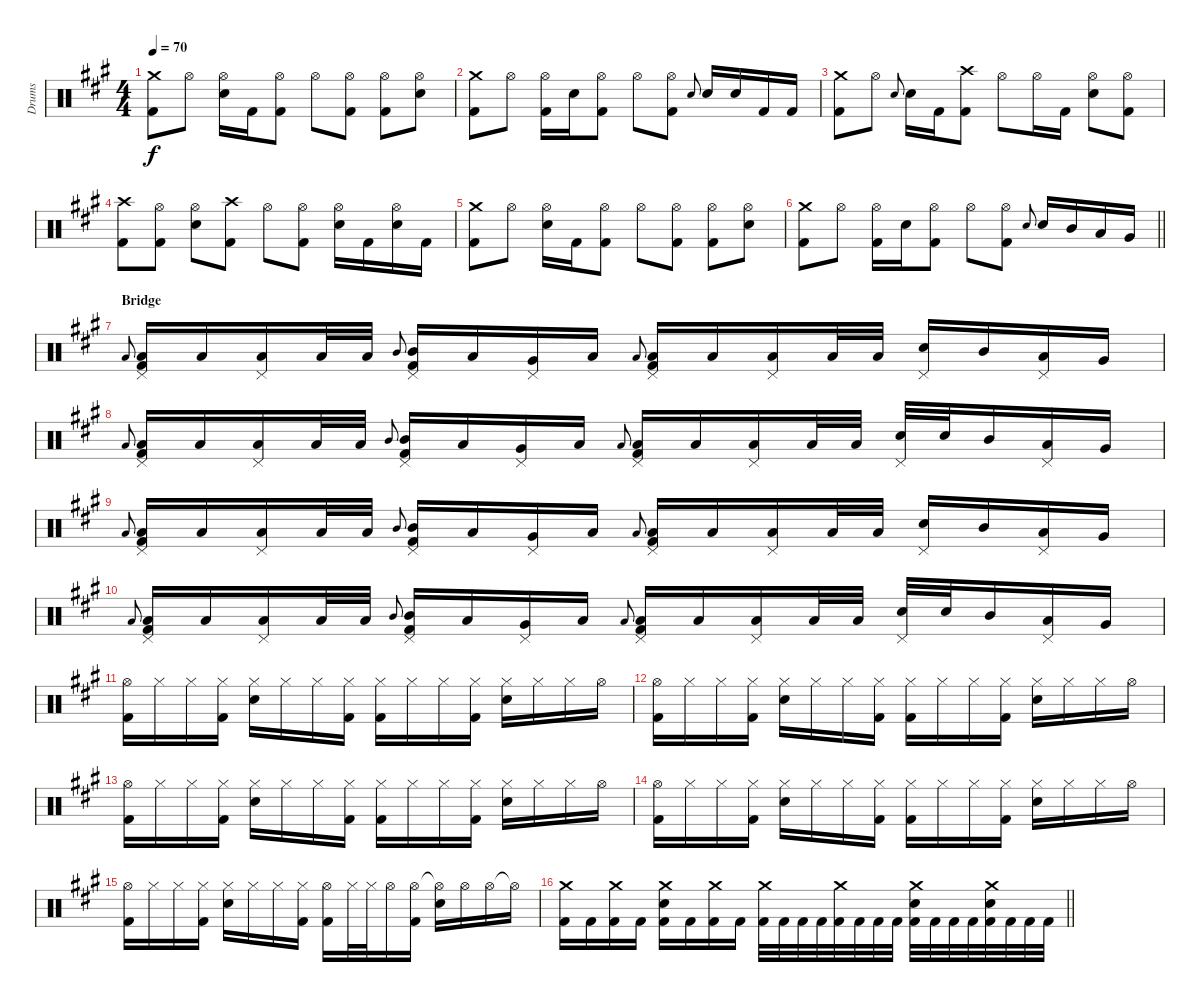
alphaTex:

\track ("Drums" "Drums") {instrument percussion}
\staff {score}
\articulation defaults
\ts (4 4)
\tempo 70
\clef neutral
\ks a
("Crash medium (hit)" "Kick (hit) 2").8{dy f} "Hi-Hat (open)".8 ("Hi-Hat (open)" "Snare (hit) 2").16 "Kick (hit) 2".16 ("Hi-Hat (open)" "Kick (hit) 2").8 "Hi-Hat (open)".8 ("Hi-Hat (open)" "Kick (hit) 2").8 ("Hi-Hat (open)" "Kick (hit) 2").8 ("Hi-Hat (open)" "Snare (hit) 2").8 |
("Crash medium (hit)" "Kick (hit) 2").8 "Hi-Hat (open)".8 ("Hi-Hat (open)" "Kick (hit) 2").16 "Snare (hit) 2".16 ("Hi-Hat (open)" "Kick (hit) 2").8 "Hi-Hat (open)".8 ("Hi-Hat (open)" "Kick (hit) 2").8 "Snare (hit) 2".8{gr onbeat} "Snare (hit) 2".16 "Snare (hit) 2".16 "Kick (hit) 2".16 "Kick (hit) 2".16 |
("Crash medium (hit)" "Kick (hit) 2").8 "Hi-Hat (open)".8 "Snare (hit) 2".8{gr onbeat} "Snare (hit) 2".16 "Kick (hit) 2".16 ("Crash high (hit)" "Kick (hit) 2").8 "Hi-Hat (open)".8 "Hi-Hat (open)".16 "Kick (hit) 2".16 ("Hi-Hat (open)" "Snare (hit) 2").8 ("Hi-Hat (open)" "Kick (hit) 2").8 |
("Crash high (hit)" "Kick (hit) 2").8 ("Hi-Hat (open)" "Kick (hit) 2").8 ("Hi-Hat (open)" "Snare (hit) 2").8 ("Crash high (hit)" "Kick (hit) 2").8 "Hi-Hat (open)".8 ("Hi-Hat (open)" "Kick (hit) 2").8 ("Hi-Hat (open)" "Snare (hit) 2").16 "Kick (hit) 2".16 ("Hi-Hat (open)" "Snare (hit) 2").16 "Kick (hit) 2".16 |
("Crash medium (hit)" "Kick (hit) 2").8 "Hi-Hat (open)".8 ("Hi-Hat (open)" "Snare (hit) 2").16 "Kick (hit) 2".16 ("Hi-Hat (open)" "Kick (hit) 2").8 "Hi-Hat (open)".8 ("Hi-Hat (open)" "Kick (hit) 2").8 ("Hi-Hat (open)" "Kick (hit) 2").8 ("Hi-Hat (open)" "Snare (hit) 2").8 |
\barLineRight lightlight
("Crash medium (hit)" "Kick (hit) 2").8 "Hi-Hat (open)".8 ("Hi-Hat (open)" "Kick (hit) 2").16 "Snare (hit) 2".16 ("Hi-Hat (open)" "Kick (hit) 2").8 "Hi-Hat (open)".8 ("Hi-Hat (open)" "Kick (hit) 2").8 "Snare (hit) 2".8{gr onbeat} "Snare (hit) 2".16 "Mid Tom (hit)".16 "Low Tom (hit)".16 "Very Low Tom (hit)".16 |
\section ("" "Bridge")
"Low Floor Tom (hit)".8{gr onbeat} ("Pedal Hi-Hat (hit)" "Low Floor Tom (hit)" "Kick (hit) 2").16 "Low Floor Tom (hit)".16 ("Pedal Hi-Hat (hit)" "Low Floor Tom (hit)").16 "Low Floor Tom (hit)".32 "Low Floor Tom (hit)".32 "Mid Tom (hit)".8{gr onbeat} ("Pedal Hi-Hat (hit)" "Mid Tom (hit)" "Kick (hit) 2").16 "Low Tom (hit)".16 ("Pedal Hi-Hat (hit)" "Very Low Tom (hit)").16 "Low Floor Tom (hit)".16 "Low Floor Tom (hit)".8{gr onbeat} ("Pedal Hi-Hat (hit)" "Low Floor Tom (hit)" "Kick (hit) 2").16 "Low Floor Tom (hit)".16 ("Pedal Hi-Hat (hit)" "Low Floor Tom (hit)").16 "Low Floor Tom (hit)".32 "Low Floor Tom (hit)".32 ("Pedal Hi-Hat (hit)" "Snare (hit) 2").16 "Mid Tom (hit)".16 ("Pedal Hi-Hat (hit)" "Low Tom (hit)").16 "Very Low Tom (hit)".16 |
"Low Floor Tom (hit)".8{gr onbeat} ("Pedal Hi-Hat (hit)" "Low Floor Tom (hit)" "Kick (hit) 2").16 "Low Floor Tom (hit)".16 ("Pedal Hi-Hat (hit)" "Low Floor Tom (hit)").16 "Low Floor Tom (hit)".32 "Low Floor Tom (hit)".32 "Mid Tom (hit)".8{gr onbeat} ("Pedal Hi-Hat (hit)" "Mid Tom (hit)" "Kick (hit) 2").16 "Low Tom (hit)".16 ("Pedal Hi-Hat (hit)" "Very Low Tom (hit)").16 "Low Floor Tom (hit)".16 "Low Floor Tom (hit)".8{gr onbeat} ("Pedal Hi-Hat (hit)" "Low Floor Tom (hit)" "Kick (hit) 2").16 "Low Floor Tom (hit)".16 ("Pedal Hi-Hat (hit)" "Low Floor Tom (hit)").16 "Low Floor Tom (hit)".32 "Low Floor Tom (hit)".32 ("Pedal Hi-Hat (hit)" "Snare (hit) 2").32 "Snare (hit) 2".32 "Mid Tom (hit)".16 ("Pedal Hi-Hat (hit)" "Low Tom (hit)").16 "Very Low Tom (hit)".16 |
"Low Floor Tom (hit)".8{gr onbeat} ("Pedal Hi-Hat (hit)" "Low Floor Tom (hit)" "Kick (hit) 2").16 "Low Floor Tom (hit)".16 ("Pedal Hi-Hat (hit)" "Low Floor Tom (hit)").16 "Low Floor Tom (hit)".32 "Low Floor Tom (hit)".32 "Mid Tom (hit)".8{gr onbeat} ("Pedal Hi-Hat (hit)" "Mid Tom (hit)" "Kick (hit) 2").16 "Low Tom (hit)".16 ("Pedal Hi-Hat (hit)" "Very Low Tom (hit)").16 "Low Floor Tom (hit)".16 "Low Floor Tom (hit)".8{gr onbeat} ("Pedal Hi-Hat (hit)" "Low Floor Tom (hit)" "Kick (hit) 2").16 "Low Floor Tom (hit)".16 ("Pedal Hi-Hat (hit)" "Low Floor Tom (hit)").16 "Low Floor Tom (hit)".32 "Low Floor Tom (hit)".32 ("Pedal Hi-Hat (hit)" "Snare (hit) 2").16 "Mid Tom (hit)".16 ("Pedal Hi-Hat (hit)" "Low Tom (hit)").16 "Very Low Tom (hit)".16 |
"Low Floor Tom (hit)".8{gr onbeat} ("Pedal Hi-Hat (hit)" "Low Floor Tom (hit)" "Kick (hit) 2").16 "Low Floor Tom (hit)".16 ("Pedal Hi-Hat (hit)" "Low Floor Tom (hit)").16 "Low Floor Tom (hit)".32 "Low Floor Tom (hit)".32 "Mid Tom (hit)".8{gr onbeat} ("Pedal Hi-Hat (hit)" "Mid Tom (hit)" "Kick (hit) 2").16 "Low Tom (hit)".16 ("Pedal Hi-Hat (hit)" "Very Low Tom (hit)").16 "Low Floor Tom (hit)".16 "Low Floor Tom (hit)".8{gr onbeat} ("Pedal Hi-Hat (hit)" "Low Floor Tom (hit)" "Kick (hit) 2").16 "Low Floor Tom (hit)".16 ("Pedal Hi-Hat (hit)" "Low Floor Tom (hit)").16 "Low Floor Tom (hit)".32 "Low Floor Tom (hit)".32 ("Pedal Hi-Hat (hit)" "Snare (hit) 2").32 "Snare (hit) 2".32 "Mid Tom (hit)".16 ("Pedal Hi-Hat (hit)" "Low Tom (hit)").16 "Very Low Tom (hit)".16 |
("Hi-Hat (open)" "Kick (hit) 2").16 "Hi-Hat (closed)".16 "Hi-Hat (closed)".16 ("Hi-Hat (closed)" "Kick (hit) 2").16 ("Hi-Hat (closed)" "Snare (hit) 2").16 "Hi-Hat (closed)".16 "Hi-Hat (closed)".16 ("Hi-Hat (closed)" "Kick (hit) 2").16 ("Hi-Hat (closed)" "Kick (hit) 2").16 "Hi-Hat (closed)".16 "Hi-Hat (closed)".16 ("Hi-Hat (closed)" "Kick (hit) 2").16 ("Hi-Hat (closed)" "Snare (hit) 2").16 "Hi-Hat (closed)".16 "Hi-Hat (closed)".16 "Hi-Hat (open)".16 |
("Hi-Hat (open)" "Kick (hit) 2").16 "Hi-Hat (closed)".16 "Hi-Hat (closed)".16 ("Hi-Hat (closed)" "Kick (hit) 2").16 ("Hi-Hat (closed)" "Snare (hit) 2").16 "Hi-Hat (closed)".16 "Hi-Hat (closed)".16 ("Hi-Hat (closed)" "Kick (hit) 2").16 ("Hi-Hat (closed)" "Kick (hit) 2").16 "Hi-Hat (closed)".16 "Hi-Hat (closed)".16 ("Hi-Hat (closed)" "Kick (hit) 2").16 ("Hi-Hat (closed)" "Snare (hit) 2").16 "Hi-Hat (closed)".16 "Hi-Hat (closed)".16 "Hi-Hat (open)".16 |
("Hi-Hat (open)" "Kick (hit) 2").16 "Hi-Hat (closed)".16 "Hi-Hat (closed)".16 ("Hi-Hat (closed)" "Kick (hit) 2").16 ("Hi-Hat (closed)" "Snare (hit) 2").16 "Hi-Hat (closed)".16 "Hi-Hat (closed)".16 ("Hi-Hat (closed)" "Kick (hit) 2").16 ("Hi-Hat (closed)" "Kick (hit) 2").16 "Hi-Hat (closed)".16 "Hi-Hat (closed)".16 ("Hi-Hat (closed)" "Kick (hit) 2").16 ("Hi-Hat (closed)" "Snare (hit) 2").16 "Hi-Hat (closed)".16 "Hi-Hat (closed)".16 "Hi-Hat (open)".16 |
("Hi-Hat (open)" "Kick (hit) 2").16 "Hi-Hat (closed)".16 "Hi-Hat (closed)".16 ("Hi-Hat (closed)" "Kick (hit) 2").16 ("Hi-Hat (closed)" "Snare (hit) 2").16 "Hi-Hat (closed)".16 "Hi-Hat (closed)".16 ("Hi-Hat (closed)" "Kick (hit) 2").16 ("Hi-Hat (closed)" "Kick (hit) 2").16 "Hi-Hat (closed)".16 "Hi-Hat (closed)".16 ("Hi-Hat (closed)" "Kick (hit) 2").16 ("Hi-Hat (closed)" "Snare (hit) 2").16 "Hi-Hat (closed)".16 "Hi-Hat (closed)".16 "Hi-Hat (open)".16 |
("Hi-Hat (open)" "Kick (hit) 2").16 "Hi-Hat (closed)".16 "Hi-Hat (closed)".16 ("Hi-Hat (closed)" "Kick (hit) 2").16 ("Hi-Hat (closed)" "Snare (hit) 2").16 "Hi-Hat (closed)".16 "Hi-Hat (closed)".16 ("Hi-Hat (closed)" "Kick (hit) 2").16 ("Hi-Hat (open)" "Kick (hit) 2").16 "Hi-Hat (closed)".32 "Hi-Hat (closed)".32 "Hi-Hat (open)".16 ("Hi-Hat (open)" "Kick (hit) 2").16 ("Hi-Hat (open)"{t} "Snare (hit) 2").16 "Hi-Hat (open)".16 "Hi-Hat (open)".16 "Hi-Hat (open)"{t}.16 |
\barLineRight lightlight
("Crash medium (hit)" "Kick (hit) 2").16 "Kick (hit) 2".16 ("Crash medium (hit)" "Kick (hit) 2").16 "Kick (hit) 2".16 ("Crash medium (hit)" "Snare (hit) 2" "Kick (hit) 2").16 "Kick (hit) 2".16 ("Crash medium (hit)" "Kick (hit) 2").16 "Kick (hit) 2".16 ("Crash medium (hit)" "Kick (hit) 2").32 "Kick (hit) 2".32 "Kick (hit) 2".32 "Kick (hit) 2".32 ("Crash medium (hit)" "Kick (hit) 2").32 "Kick (hit) 2".32 "Kick (hit) 2".32 "Kick (hit) 2".32 ("Crash medium (hit)" "Snare (hit) 2" "Kick (hit) 2").32 "Kick (hit) 2".32 "Kick (hit) 2".32 "Kick (hit) 2".32 ("Crash medium (hit)" "Snare (hit) 2" "Kick (hit) 2").32 "Kick (hit) 2".32 "Kick (hit) 2".32 "Kick (hit) 2".32
